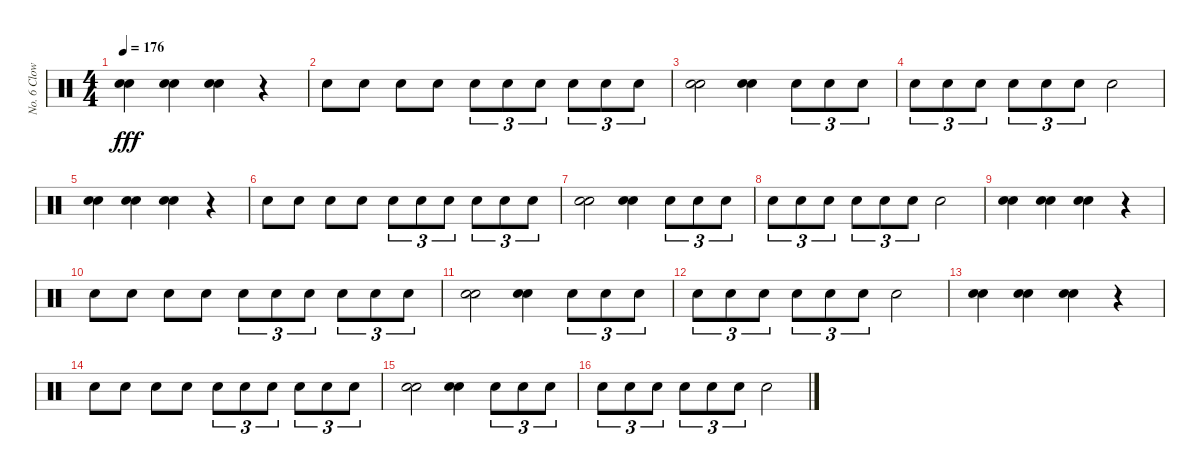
\track ("No. 6 Clown" "No. 6 Clow") {instrument percussion}
\staff {score}
\articulation defaults
\ts (4 4)
\tempo 176
\clef neutral
\ks c
("Electric Snare (hit)" "Electric Snare (hit)").4{dy fff} ("Electric Snare (hit)" "Electric Snare (hit)").4 ("Electric Snare (hit)" "Electric Snare (hit)").4 r.4 |
"Electric Snare (hit)".8 "Electric Snare (hit)".8 "Electric Snare (hit)".8 "Electric Snare (hit)".8 "Electric Snare (hit)".8{tu (3 2)} "Electric Snare (hit)".8{tu (3 2)} "Electric Snare (hit)".8{tu (3 2)} "Electric Snare (hit)".8{tu (3 2)} "Electric Snare (hit)".8{tu (3 2)} "Electric Snare (hit)".8{tu (3 2)} |
("Electric Snare (hit)" "Electric Snare (hit)").2 ("Electric Snare (hit)" "Electric Snare (hit)").4 "Electric Snare (hit)".8{tu (3 2)} "Electric Snare (hit)".8{tu (3 2)} "Electric Snare (hit)".8{tu (3 2)} |
"Electric Snare (hit)".8{tu (3 2)} "Electric Snare (hit)".8{tu (3 2)} "Electric Snare (hit)".8{tu (3 2)} "Electric Snare (hit)".8{tu (3 2)} "Electric Snare (hit)".8{tu (3 2)} "Electric Snare (hit)".8{tu (3 2)} "Electric Snare (hit)".2 |
("Electric Snare (hit)" "Electric Snare (hit)").4 ("Electric Snare (hit)" "Electric Snare (hit)").4 ("Electric Snare (hit)" "Electric Snare (hit)").4 r.4 |
"Electric Snare (hit)".8 "Electric Snare (hit)".8 "Electric Snare (hit)".8 "Electric Snare (hit)".8 "Electric Snare (hit)".8{tu (3 2)} "Electric Snare (hit)".8{tu (3 2)} "Electric Snare (hit)".8{tu (3 2)} "Electric Snare (hit)".8{tu (3 2)} "Electric Snare (hit)".8{tu (3 2)} "Electric Snare (hit)".8{tu (3 2)} |
("Electric Snare (hit)" "Electric Snare (hit)").2 ("Electric Snare (hit)" "Electric Snare (hit)").4 "Electric Snare (hit)".8{tu (3 2)} "Electric Snare (hit)".8{tu (3 2)} "Electric Snare (hit)".8{tu (3 2)} |
"Electric Snare (hit)".8{tu (3 2)} "Electric Snare (hit)".8{tu (3 2)} "Electric Snare (hit)".8{tu (3 2)} "Electric Snare (hit)".8{tu (3 2)} "Electric Snare (hit)".8{tu (3 2)} "Electric Snare (hit)".8{tu (3 2)} "Electric Snare (hit)".2 |
("Electric Snare (hit)" "Electric Snare (hit)").4 ("Electric Snare (hit)" "Electric Snare (hit)").4 ("Electric Snare (hit)" "Electric Snare (hit)").4 r.4 |
"Electric Snare (hit)".8 "Electric Snare (hit)".8 "Electric Snare (hit)".8 "Electric Snare (hit)".8 "Electric Snare (hit)".8{tu (3 2)} "Electric Snare (hit)".8{tu (3 2)} "Electric Snare (hit)".8{tu (3 2)} "Electric Snare (hit)".8{tu (3 2)} "Electric Snare (hit)".8{tu (3 2)} "Electric Snare (hit)".8{tu (3 2)} |
("Electric Snare (hit)" "Electric Snare (hit)").2 ("Electric Snare (hit)" "Electric Snare (hit)").4 "Electric Snare (hit)".8{tu (3 2)} "Electric Snare (hit)".8{tu (3 2)} "Electric Snare (hit)".8{tu (3 2)} |
"Electric Snare (hit)".8{tu (3 2)} "Electric Snare (hit)".8{tu (3 2)} "Electric Snare (hit)".8{tu (3 2)} "Electric Snare (hit)".8{tu (3 2)} "Electric Snare (hit)".8{tu (3 2)} "Electric Snare (hit)".8{tu (3 2)} "Electric Snare (hit)".2 |
("Electric Snare (hit)" "Electric Snare (hit)").4 ("Electric Snare (hit)" "Electric Snare (hit)").4 ("Electric Snare (hit)" "Electric Snare (hit)").4 r.4 |
"Electric Snare (hit)".8 "Electric Snare (hit)".8 "Electric Snare (hit)".8 "Electric Snare (hit)".8 "Electric Snare (hit)".8{tu (3 2)} "Electric Snare (hit)".8{tu (3 2)} "Electric Snare (hit)".8{tu (3 2)} "Electric Snare (hit)".8{tu (3 2)} "Electric Snare (hit)".8{tu (3 2)} "Electric Snare (hit)".8{tu (3 2)} |
("Electric Snare (hit)" "Electric Snare (hit)").2 ("Electric Snare (hit)" "Electric Snare (hit)").4 "Electric Snare (hit)".8{tu (3 2)} "Electric Snare (hit)".8{tu (3 2)} "Electric Snare (hit)".8{tu (3 2)} |
"Electric Snare (hit)".8{tu (3 2)} "Electric Snare (hit)".8{tu (3 2)} "Electric Snare (hit)".8{tu (3 2)} "Electric Snare (hit)".8{tu (3 2)} "Electric Snare (hit)".8{tu (3 2)} "Electric Snare (hit)".8{tu (3 2)} "Electric Snare (hit)".2
